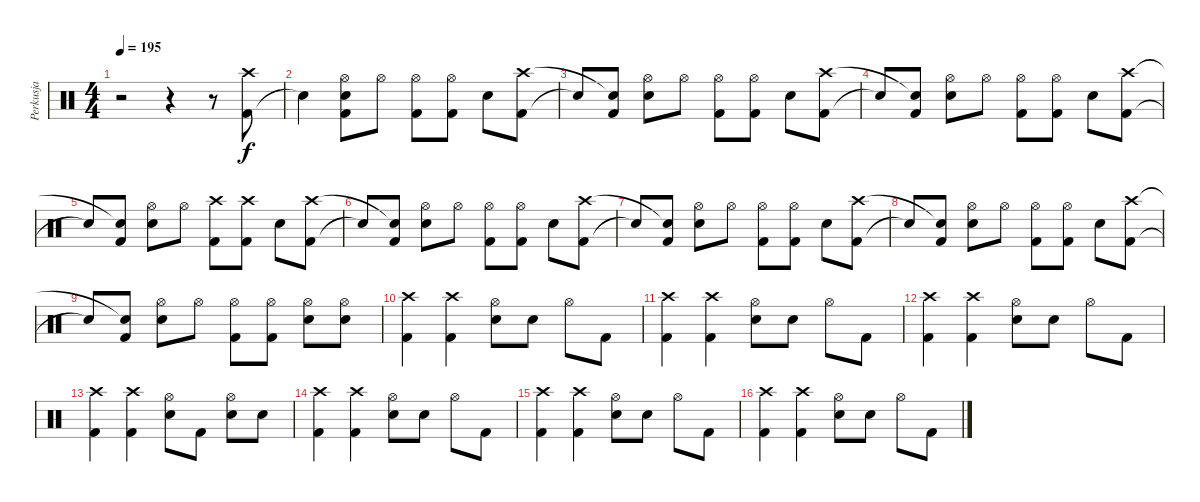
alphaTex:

\track ("Perkusja" "Perkusja") {instrument percussion}
\staff {score}
\articulation defaults
\ts (4 4)
\tempo 195
\clef neutral
\ks c
r.2{dy f} r.4 r.8 ("Kick (hit) 2" "Crash high (hit)").8 |
"Snare (hit)"{t}.4 ("Kick (hit) 2" "Hi-Hat (open)" "Electric Snare (hit)").8 "Hi-Hat (open)".8 ("Kick (hit) 2" "Hi-Hat (open)").8 ("Kick (hit) 2" "Hi-Hat (open)").8 "Electric Snare (hit)".8 ("Kick (hit) 2" "Crash high (hit)").8 |
"Snare (hit)"{t}.8 ("Kick (hit) 2" "Snare (hit)"{t}).8 ("Hi-Hat (open)" "Electric Snare (hit)").8 "Hi-Hat (open)".8 ("Kick (hit) 2" "Hi-Hat (open)").8 ("Kick (hit) 2" "Hi-Hat (open)").8 "Electric Snare (hit)".8 ("Kick (hit) 2" "Crash high (hit)").8 |
"Snare (hit)"{t}.8 ("Kick (hit) 2" "Snare (hit)"{t}).8 ("Hi-Hat (open)" "Electric Snare (hit)").8 "Hi-Hat (open)".8 ("Kick (hit) 2" "Hi-Hat (open)").8 ("Kick (hit) 2" "Hi-Hat (open)").8 "Electric Snare (hit)".8 ("Kick (hit) 2" "Crash high (hit)").8 |
"Snare (hit)"{t}.8 ("Kick (hit) 2" "Snare (hit)"{t}).8 ("Electric Snare (hit)" "Hi-Hat (open)").8 "Hi-Hat (open)".8 ("Kick (hit) 2" "Crash high (hit)").8 ("Kick (hit) 2" "Crash high (hit)").8 "Electric Snare (hit)".8 ("Kick (hit) 2" "Crash high (hit)").8 |
"Snare (hit)"{t}.8 ("Kick (hit) 2" "Snare (hit)"{t}).8 ("Hi-Hat (open)" "Electric Snare (hit)").8 "Hi-Hat (open)".8 ("Kick (hit) 2" "Hi-Hat (open)").8 ("Kick (hit) 2" "Hi-Hat (open)").8 "Electric Snare (hit)".8 ("Kick (hit) 2" "Crash high (hit)").8 |
"Snare (hit)"{t}.8 ("Kick (hit) 2" "Snare (hit)"{t}).8 ("Hi-Hat (open)" "Electric Snare (hit)").8 "Hi-Hat (open)".8 ("Kick (hit) 2" "Hi-Hat (open)").8 ("Kick (hit) 2" "Hi-Hat (open)").8 "Electric Snare (hit)".8 ("Kick (hit) 2" "Crash high (hit)").8 |
"Snare (hit)"{t}.8 ("Kick (hit) 2" "Snare (hit)"{t}).8 ("Hi-Hat (open)" "Electric Snare (hit)").8 "Hi-Hat (open)".8 ("Kick (hit) 2" "Hi-Hat (open)").8 ("Kick (hit) 2" "Hi-Hat (open)").8 "Electric Snare (hit)".8 ("Kick (hit) 2" "Crash high (hit)").8 |
"Snare (hit)"{t}.8 ("Kick (hit) 2" "Snare (hit)"{t}).8 ("Electric Snare (hit)" "Hi-Hat (open)").8 "Hi-Hat (open)".8 ("Kick (hit) 2" "Hi-Hat (open)").8 ("Kick (hit) 2" "Hi-Hat (open)").8 ("Electric Snare (hit)" "Hi-Hat (open)").8 ("Electric Snare (hit)" "Hi-Hat (open)").8 |
("Kick (hit) 2" "Crash high (hit)").4 ("Kick (hit) 2" "Crash high (hit)").4 ("Electric Snare (hit)" "Hi-Hat (open)").8 "Electric Snare (hit)".8 "Hi-Hat (open)".8 "Kick (hit) 2".8 |
("Kick (hit) 2" "Crash high (hit)").4 ("Kick (hit) 2" "Crash high (hit)").4 ("Electric Snare (hit)" "Hi-Hat (open)").8 "Electric Snare (hit)".8 "Hi-Hat (open)".8 "Kick (hit) 2".8 |
("Kick (hit) 2" "Crash high (hit)").4 ("Kick (hit) 2" "Crash high (hit)").4 ("Electric Snare (hit)" "Hi-Hat (open)").8 "Electric Snare (hit)".8 "Hi-Hat (open)".8 "Kick (hit) 2".8 |
("Kick (hit) 2" "Crash high (hit)").4 ("Kick (hit) 2" "Crash high (hit)").4 ("Electric Snare (hit)" "Hi-Hat (open)").8 "Kick (hit) 2".8 ("Electric Snare (hit)" "Hi-Hat (open)").8 "Electric Snare (hit)".8 |
("Kick (hit) 2" "Crash high (hit)").4 ("Kick (hit) 2" "Crash high (hit)").4 ("Electric Snare (hit)" "Hi-Hat (open)").8 "Electric Snare (hit)".8 "Hi-Hat (open)".8 "Kick (hit) 2".8 |
("Kick (hit) 2" "Crash high (hit)").4 ("Kick (hit) 2" "Crash high (hit)").4 ("Electric Snare (hit)" "Hi-Hat (open)").8 "Electric Snare (hit)".8 "Hi-Hat (open)".8 "Kick (hit) 2".8 |
("Kick (hit) 2" "Crash high (hit)").4 ("Kick (hit) 2" "Crash high (hit)").4 ("Electric Snare (hit)" "Hi-Hat (open)").8 "Electric Snare (hit)".8 "Hi-Hat (open)".8 "Kick (hit) 2".8
